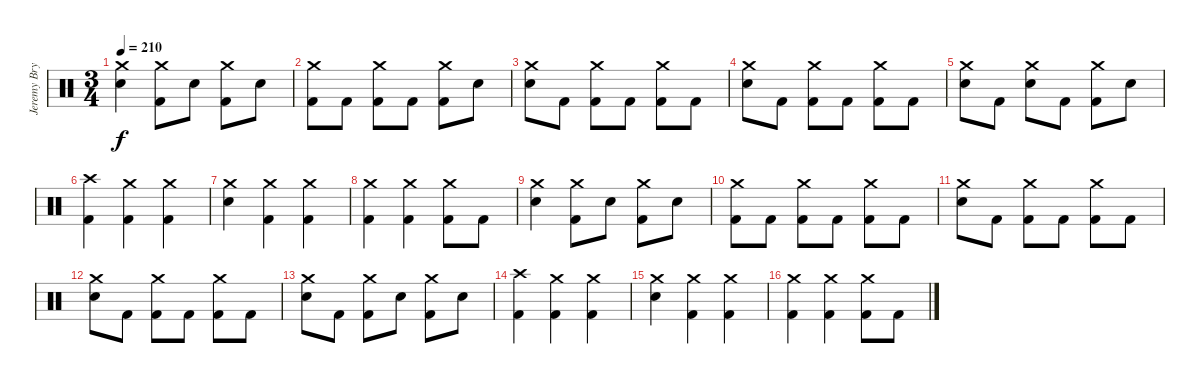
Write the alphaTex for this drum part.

\track ("Jeremy Bryan - Drums" "Jeremy Bry") {instrument percussion}
\staff {score}
\articulation defaults
\ts (3 4)
\tempo 210
\clef neutral
\ks c
("Crash medium (hit)" "Electric Snare (hit)").4{dy f} ("Crash medium (hit)" "Kick (hit) 2").8 "Electric Snare (hit)".8 ("Crash medium (hit)" "Kick (hit) 2").8 "Electric Snare (hit)".8 |
("Crash medium (hit)" "Kick (hit) 2").8 "Kick (hit) 2".8 ("Crash medium (hit)" "Kick (hit) 2").8 "Kick (hit) 2".8 ("Crash medium (hit)" "Kick (hit) 2").8 "Electric Snare (hit)".8 |
("Crash medium (hit)" "Electric Snare (hit)").8 "Kick (hit) 2".8 ("Crash medium (hit)" "Kick (hit) 2").8 "Kick (hit) 2".8 ("Crash medium (hit)" "Kick (hit) 2").8 "Kick (hit) 2".8 |
("Crash medium (hit)" "Electric Snare (hit)").8 "Kick (hit) 2".8 ("Crash medium (hit)" "Kick (hit) 2").8 "Kick (hit) 2".8 ("Crash medium (hit)" "Kick (hit) 2").8 "Kick (hit) 2".8 |
("Crash medium (hit)" "Electric Snare (hit)").8 "Kick (hit) 2".8 ("Crash medium (hit)" "Electric Snare (hit)").8 "Kick (hit) 2".8 ("Crash medium (hit)" "Kick (hit) 2").8 "Electric Snare (hit)".8 |
("Crash high (hit)" "Kick (hit) 2").4 ("Crash medium (hit)" "Kick (hit) 2").4 ("Crash medium (hit)" "Kick (hit) 2").4 |
("Crash medium (hit)" "Electric Snare (hit)").4 ("Crash medium (hit)" "Kick (hit) 2").4 ("Crash medium (hit)" "Kick (hit) 2").4 |
("Crash medium (hit)" "Kick (hit) 2").4 ("Crash medium (hit)" "Kick (hit) 2").4 ("Crash medium (hit)" "Kick (hit) 2").8 "Kick (hit) 2".8 |
("Crash medium (hit)" "Electric Snare (hit)").4 ("Crash medium (hit)" "Kick (hit) 2").8 "Electric Snare (hit)".8 ("Crash medium (hit)" "Kick (hit) 2").8 "Electric Snare (hit)".8 |
("Crash medium (hit)" "Kick (hit) 2").8 "Kick (hit) 2".8 ("Crash medium (hit)" "Kick (hit) 2").8 "Kick (hit) 2".8 ("Crash medium (hit)" "Kick (hit) 2").8 "Kick (hit) 2".8 |
("Crash medium (hit)" "Electric Snare (hit)").8 "Kick (hit) 2".8 ("Crash medium (hit)" "Kick (hit) 2").8 "Kick (hit) 2".8 ("Crash medium (hit)" "Kick (hit) 2").8 "Kick (hit) 2".8 |
("Crash medium (hit)" "Electric Snare (hit)").8 "Kick (hit) 2".8 ("Crash medium (hit)" "Kick (hit) 2").8 "Kick (hit) 2".8 ("Crash medium (hit)" "Kick (hit) 2").8 "Kick (hit) 2".8 |
("Crash medium (hit)" "Electric Snare (hit)").8 "Kick (hit) 2".8 ("Crash medium (hit)" "Kick (hit) 2").8 "Electric Snare (hit)".8 ("Crash medium (hit)" "Kick (hit) 2").8 "Electric Snare (hit)".8 |
("Crash high (hit)" "Kick (hit) 2").4 ("Crash medium (hit)" "Kick (hit) 2").4 ("Crash medium (hit)" "Kick (hit) 2").4 |
("Crash medium (hit)" "Electric Snare (hit)").4 ("Crash medium (hit)" "Kick (hit) 2").4 ("Crash medium (hit)" "Kick (hit) 2").4 |
("Crash medium (hit)" "Kick (hit) 2").4 ("Crash medium (hit)" "Kick (hit) 2").4 ("Crash medium (hit)" "Kick (hit) 2").8 "Kick (hit) 2".8
